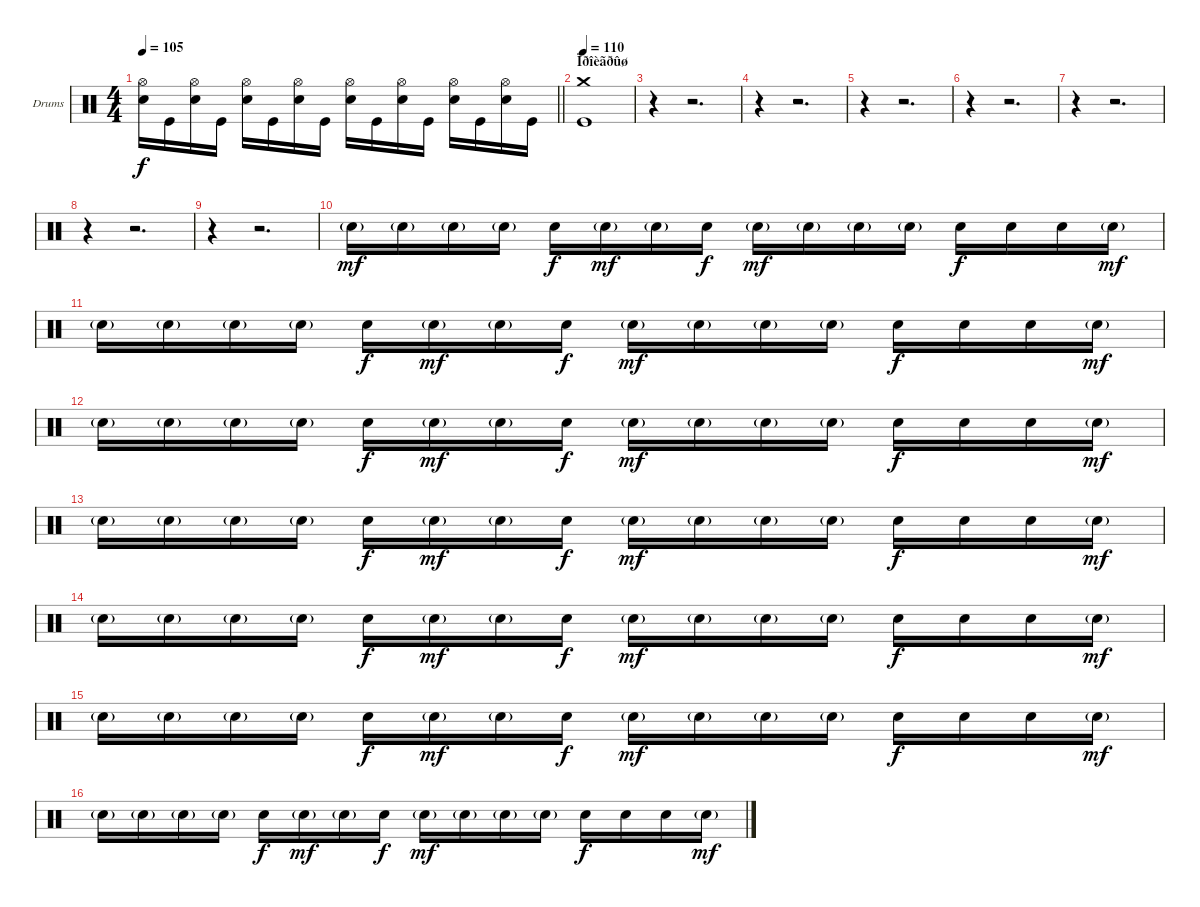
\bracketExtendMode groupsimilarinstruments
\firstSystemTrackNameOrientation horizontal
\otherSystemsTrackNameOrientation horizontal
\track ("Drumkit" "Drums") {instrument percussion}
\staff {score}
\articulation defaults
\ts (4 4)
\tempo 105
\clef neutral
\barLineRight lightlight
\ks c
("Hi-Hat (open)" "Snare (hit) 2").16{dy f} "Kick (hit)".16 ("Hi-Hat (open)" "Snare (hit) 2").16 "Kick (hit)".16 ("Hi-Hat (open)" "Snare (hit) 2").16 "Kick (hit)".16 ("Hi-Hat (open)" "Snare (hit) 2").16 "Kick (hit)".16 ("Hi-Hat (open)" "Snare (hit) 2").16 "Kick (hit)".16 ("Hi-Hat (open)" "Snare (hit) 2").16 "Kick (hit)".16 ("Hi-Hat (open)" "Snare (hit) 2").16 "Kick (hit)".16 ("Hi-Hat (open)" "Snare (hit) 2").16 "Kick (hit)".16 |
\section ("" "Ïðîèãðûø")
\tempo 110
("Crash medium (hit)" "Kick (hit)").1 |
r.4 r.2{d} |
r.4 r.2{d} |
r.4 r.2{d} |
r.4 r.2{d} |
r.4 r.2{d} |
r.4 r.2{d} |
r.4 r.2{d} |
"Snare (hit) 2"{g}.16{dy mf} "Snare (hit) 2"{g}.16 "Snare (hit) 2"{g}.16 "Snare (hit) 2"{g}.16 "Snare (hit) 2".16{dy f} "Snare (hit) 2"{g}.16{dy mf} "Snare (hit) 2"{g}.16 "Snare (hit) 2".16{dy f} "Snare (hit) 2"{g}.16{dy mf} "Snare (hit) 2"{g}.16 "Snare (hit) 2"{g}.16 "Snare (hit) 2"{g}.16 "Snare (hit) 2".16{dy f} "Snare (hit) 2".16 "Snare (hit) 2".16 "Snare (hit) 2"{g}.16{dy mf} |
"Snare (hit) 2"{g}.16 "Snare (hit) 2"{g}.16 "Snare (hit) 2"{g}.16 "Snare (hit) 2"{g}.16 "Snare (hit) 2".16{dy f} "Snare (hit) 2"{g}.16{dy mf} "Snare (hit) 2"{g}.16 "Snare (hit) 2".16{dy f} "Snare (hit) 2"{g}.16{dy mf} "Snare (hit) 2"{g}.16 "Snare (hit) 2"{g}.16 "Snare (hit) 2"{g}.16 "Snare (hit) 2".16{dy f} "Snare (hit) 2".16 "Snare (hit) 2".16 "Snare (hit) 2"{g}.16{dy mf} |
"Snare (hit) 2"{g}.16 "Snare (hit) 2"{g}.16 "Snare (hit) 2"{g}.16 "Snare (hit) 2"{g}.16 "Snare (hit) 2".16{dy f} "Snare (hit) 2"{g}.16{dy mf} "Snare (hit) 2"{g}.16 "Snare (hit) 2".16{dy f} "Snare (hit) 2"{g}.16{dy mf} "Snare (hit) 2"{g}.16 "Snare (hit) 2"{g}.16 "Snare (hit) 2"{g}.16 "Snare (hit) 2".16{dy f} "Snare (hit) 2".16 "Snare (hit) 2".16 "Snare (hit) 2"{g}.16{dy mf} |
"Snare (hit) 2"{g}.16 "Snare (hit) 2"{g}.16 "Snare (hit) 2"{g}.16 "Snare (hit) 2"{g}.16 "Snare (hit) 2".16{dy f} "Snare (hit) 2"{g}.16{dy mf} "Snare (hit) 2"{g}.16 "Snare (hit) 2".16{dy f} "Snare (hit) 2"{g}.16{dy mf} "Snare (hit) 2"{g}.16 "Snare (hit) 2"{g}.16 "Snare (hit) 2"{g}.16 "Snare (hit) 2".16{dy f} "Snare (hit) 2".16 "Snare (hit) 2".16 "Snare (hit) 2"{g}.16{dy mf} |
"Snare (hit) 2"{g}.16 "Snare (hit) 2"{g}.16 "Snare (hit) 2"{g}.16 "Snare (hit) 2"{g}.16 "Snare (hit) 2".16{dy f} "Snare (hit) 2"{g}.16{dy mf} "Snare (hit) 2"{g}.16 "Snare (hit) 2".16{dy f} "Snare (hit) 2"{g}.16{dy mf} "Snare (hit) 2"{g}.16 "Snare (hit) 2"{g}.16 "Snare (hit) 2"{g}.16 "Snare (hit) 2".16{dy f} "Snare (hit) 2".16 "Snare (hit) 2".16 "Snare (hit) 2"{g}.16{dy mf} |
"Snare (hit) 2"{g}.16 "Snare (hit) 2"{g}.16 "Snare (hit) 2"{g}.16 "Snare (hit) 2"{g}.16 "Snare (hit) 2".16{dy f} "Snare (hit) 2"{g}.16{dy mf} "Snare (hit) 2"{g}.16 "Snare (hit) 2".16{dy f} "Snare (hit) 2"{g}.16{dy mf} "Snare (hit) 2"{g}.16 "Snare (hit) 2"{g}.16 "Snare (hit) 2"{g}.16 "Snare (hit) 2".16{dy f} "Snare (hit) 2".16 "Snare (hit) 2".16 "Snare (hit) 2"{g}.16{dy mf} |
"Snare (hit) 2"{g}.16 "Snare (hit) 2"{g}.16 "Snare (hit) 2"{g}.16 "Snare (hit) 2"{g}.16 "Snare (hit) 2".16{dy f} "Snare (hit) 2"{g}.16{dy mf} "Snare (hit) 2"{g}.16 "Snare (hit) 2".16{dy f} "Snare (hit) 2"{g}.16{dy mf} "Snare (hit) 2"{g}.16 "Snare (hit) 2"{g}.16 "Snare (hit) 2"{g}.16 "Snare (hit) 2".16{dy f} "Snare (hit) 2".16 "Snare (hit) 2".16 "Snare (hit) 2"{g}.16{dy mf}
